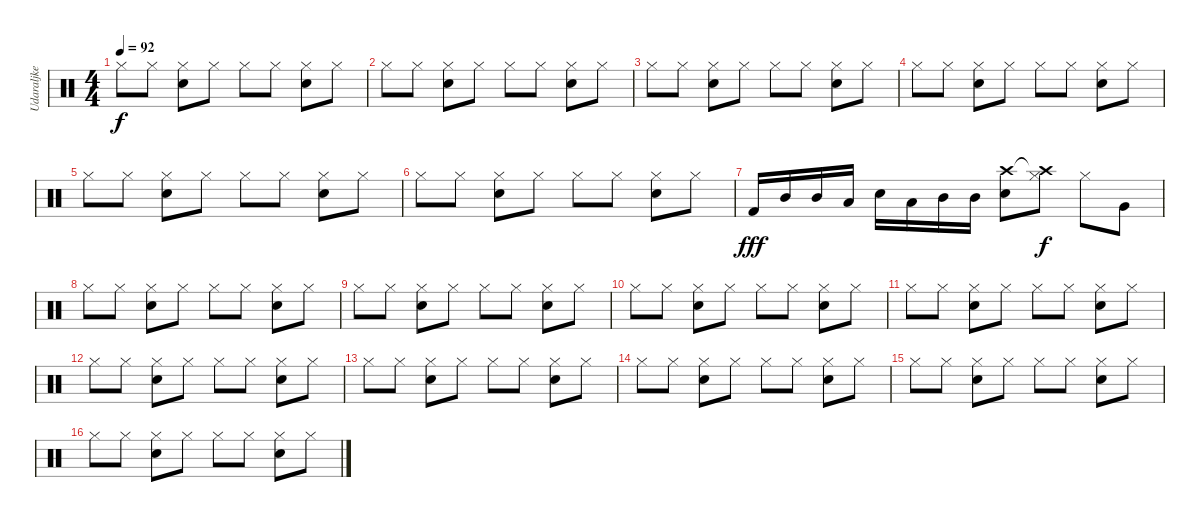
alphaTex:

\track ("Udaraljke" "Udaraljke") {instrument percussion}
\staff {score}
\articulation defaults
\ts (4 4)
\tempo 92
\clef neutral
\ks c "Hi-Hat (closed)".8{dy f} "Hi-Hat (closed)".8
("Hi-Hat (closed)" "Electric Snare (hit)").8 "Hi-Hat (closed)".8 "Hi-Hat (closed)".8 "Hi-Hat (closed)".8 ("Hi-Hat (closed)" "Electric Snare (hit)").8 "Hi-Hat (closed)".8 |
"Hi-Hat (closed)".8 "Hi-Hat (closed)".8 ("Hi-Hat (closed)" "Electric Snare (hit)").8 "Hi-Hat (closed)".8 "Hi-Hat (closed)".8 "Hi-Hat (closed)".8 ("Hi-Hat (closed)" "Electric Snare (hit)").8 "Hi-Hat (closed)".8 |
"Hi-Hat (closed)".8 "Hi-Hat (closed)".8 ("Hi-Hat (closed)" "Electric Snare (hit)").8 "Hi-Hat (closed)".8 "Hi-Hat (closed)".8 "Hi-Hat (closed)".8 ("Hi-Hat (closed)" "Electric Snare (hit)").8 "Hi-Hat (closed)".8 |
"Hi-Hat (closed)".8 "Hi-Hat (closed)".8 ("Hi-Hat (closed)" "Electric Snare (hit)").8 "Hi-Hat (closed)".8 "Hi-Hat (closed)".8 "Hi-Hat (closed)".8 ("Hi-Hat (closed)" "Electric Snare (hit)").8 "Hi-Hat (closed)".8 |
"Hi-Hat (closed)".8 "Hi-Hat (closed)".8 ("Hi-Hat (closed)" "Electric Snare (hit)").8 "Hi-Hat (closed)".8 "Hi-Hat (closed)".8 "Hi-Hat (closed)".8 ("Hi-Hat (closed)" "Electric Snare (hit)").8 "Hi-Hat (closed)".8 |
"Hi-Hat (closed)".8 "Hi-Hat (closed)".8 ("Hi-Hat (closed)" "Electric Snare (hit)").8 "Hi-Hat (closed)".8 "Hi-Hat (closed)".8 "Hi-Hat (closed)".8 ("Hi-Hat (closed)" "Electric Snare (hit)").8 "Hi-Hat (closed)".8 |
"Kick (hit) 2".16{dy fff} "Mid Tom (hit)".16 "Mid Tom (hit)".16 "Low Tom (hit)".16 "Electric Snare (hit)".16 "Low Floor Tom (hit)".16 "Mid Tom (hit)".16 "Mid Tom (hit)".16 ("Electric Snare (hit)" "Crash high (hit)").8 ("Hi-Hat (closed)" "Crash high (hit)"{t}).8{dy f} "Hi-Hat (closed)".8 "Very Low Tom (hit)".8 |
"Hi-Hat (closed)".8 "Hi-Hat (closed)".8 ("Hi-Hat (closed)" "Electric Snare (hit)").8 "Hi-Hat (closed)".8 "Hi-Hat (closed)".8 "Hi-Hat (closed)".8 ("Hi-Hat (closed)" "Electric Snare (hit)").8 "Hi-Hat (closed)".8 |
"Hi-Hat (closed)".8 "Hi-Hat (closed)".8 ("Hi-Hat (closed)" "Electric Snare (hit)").8 "Hi-Hat (closed)".8 "Hi-Hat (closed)".8 "Hi-Hat (closed)".8 ("Hi-Hat (closed)" "Electric Snare (hit)").8 "Hi-Hat (closed)".8 |
"Hi-Hat (closed)".8 "Hi-Hat (closed)".8 ("Hi-Hat (closed)" "Electric Snare (hit)").8 "Hi-Hat (closed)".8 "Hi-Hat (closed)".8 "Hi-Hat (closed)".8 ("Hi-Hat (closed)" "Electric Snare (hit)").8 "Hi-Hat (closed)".8 |
"Hi-Hat (closed)".8 "Hi-Hat (closed)".8 ("Hi-Hat (closed)" "Electric Snare (hit)").8 "Hi-Hat (closed)".8 "Hi-Hat (closed)".8 "Hi-Hat (closed)".8 ("Hi-Hat (closed)" "Electric Snare (hit)").8 "Hi-Hat (closed)".8 |
"Hi-Hat (closed)".8 "Hi-Hat (closed)".8 ("Hi-Hat (closed)" "Electric Snare (hit)").8 "Hi-Hat (closed)".8 "Hi-Hat (closed)".8 "Hi-Hat (closed)".8 ("Hi-Hat (closed)" "Electric Snare (hit)").8 "Hi-Hat (closed)".8 |
"Hi-Hat (closed)".8 "Hi-Hat (closed)".8 ("Hi-Hat (closed)" "Electric Snare (hit)").8 "Hi-Hat (closed)".8 "Hi-Hat (closed)".8 "Hi-Hat (closed)".8 ("Hi-Hat (closed)" "Electric Snare (hit)").8 "Hi-Hat (closed)".8 |
"Hi-Hat (closed)".8 "Hi-Hat (closed)".8 ("Hi-Hat (closed)" "Electric Snare (hit)").8 "Hi-Hat (closed)".8 "Hi-Hat (closed)".8 "Hi-Hat (closed)".8 ("Hi-Hat (closed)" "Electric Snare (hit)").8 "Hi-Hat (closed)".8 |
"Hi-Hat (closed)".8 "Hi-Hat (closed)".8 ("Hi-Hat (closed)" "Electric Snare (hit)").8 "Hi-Hat (closed)".8 "Hi-Hat (closed)".8 "Hi-Hat (closed)".8 ("Hi-Hat (closed)" "Electric Snare (hit)").8 "Hi-Hat (closed)".8 |
"Hi-Hat (closed)".8 "Hi-Hat (closed)".8 ("Hi-Hat (closed)" "Electric Snare (hit)").8 "Hi-Hat (closed)".8 "Hi-Hat (closed)".8 "Hi-Hat (closed)".8 ("Hi-Hat (closed)" "Electric Snare (hit)").8 "Hi-Hat (closed)".8
